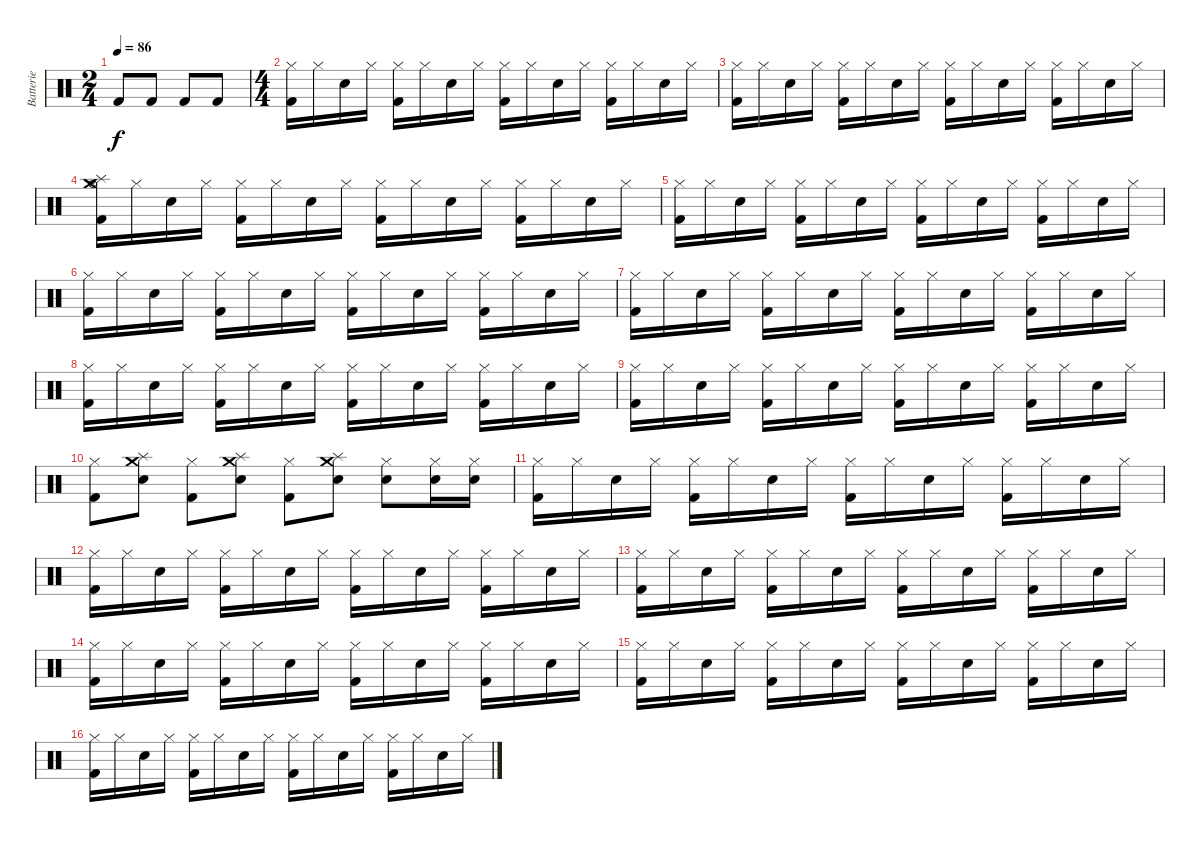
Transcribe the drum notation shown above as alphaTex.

\track ("Batterie" "Batterie") {instrument percussion}
\staff {score}
\articulation defaults
\ts (2 4)
\tempo 86
\clef neutral
\ks c "Kick (hit) 2".8{dy f} "Kick (hit) 2".8 "Kick (hit) 2".8 "Kick (hit) 2".8
|
\ts (4 4)
("Hi-Hat (closed)" "Kick (hit) 2").16 "Hi-Hat (closed)".16 "Snare (hit) 2".16 "Hi-Hat (closed)".16 ("Hi-Hat (closed)" "Kick (hit) 2").16 "Hi-Hat (closed)".16 "Snare (hit) 2".16 "Hi-Hat (closed)".16 ("Hi-Hat (closed)" "Kick (hit) 2").16 "Hi-Hat (closed)".16 "Snare (hit) 2".16 "Hi-Hat (closed)".16 ("Hi-Hat (closed)" "Kick (hit) 2").16 "Hi-Hat (closed)".16 "Snare (hit) 2".16 "Hi-Hat (closed)".16 |
("Hi-Hat (closed)" "Kick (hit) 2").16 "Hi-Hat (closed)".16 "Snare (hit) 2".16 "Hi-Hat (closed)".16 ("Hi-Hat (closed)" "Kick (hit) 2").16 "Hi-Hat (closed)".16 "Snare (hit) 2".16 "Hi-Hat (closed)".16 ("Hi-Hat (closed)" "Kick (hit) 2").16 "Hi-Hat (closed)".16 "Snare (hit) 2".16 "Hi-Hat (closed)".16 ("Hi-Hat (closed)" "Kick (hit) 2").16 "Hi-Hat (closed)".16 "Snare (hit) 2".16 "Hi-Hat (closed)".16 |
("Crash medium (hit)" "Hi-Hat (open)" "Splash (hit)" "Kick (hit) 2").16 "Hi-Hat (closed)".16 "Snare (hit) 2".16 "Hi-Hat (closed)".16 ("Hi-Hat (closed)" "Kick (hit) 2").16 "Hi-Hat (closed)".16 "Snare (hit) 2".16 "Hi-Hat (closed)".16 ("Hi-Hat (closed)" "Kick (hit) 2").16 "Hi-Hat (closed)".16 "Snare (hit) 2".16 "Hi-Hat (closed)".16 ("Hi-Hat (closed)" "Kick (hit) 2").16 "Hi-Hat (closed)".16 "Snare (hit) 2".16 "Hi-Hat (closed)".16 |
("Hi-Hat (closed)" "Kick (hit) 2").16 "Hi-Hat (closed)".16 "Snare (hit) 2".16 "Hi-Hat (closed)".16 ("Hi-Hat (closed)" "Kick (hit) 2").16 "Hi-Hat (closed)".16 "Snare (hit) 2".16 "Hi-Hat (closed)".16 ("Hi-Hat (closed)" "Kick (hit) 2").16 "Hi-Hat (closed)".16 "Snare (hit) 2".16 "Hi-Hat (closed)".16 ("Hi-Hat (closed)" "Kick (hit) 2").16 "Hi-Hat (closed)".16 "Snare (hit) 2".16 "Hi-Hat (closed)".16 |
("Hi-Hat (closed)" "Kick (hit) 2").16 "Hi-Hat (closed)".16 "Snare (hit) 2".16 "Hi-Hat (closed)".16 ("Hi-Hat (closed)" "Kick (hit) 2").16 "Hi-Hat (closed)".16 "Snare (hit) 2".16 "Hi-Hat (closed)".16 ("Hi-Hat (closed)" "Kick (hit) 2").16 "Hi-Hat (closed)".16 "Snare (hit) 2".16 "Hi-Hat (closed)".16 ("Hi-Hat (closed)" "Kick (hit) 2").16 "Hi-Hat (closed)".16 "Snare (hit) 2".16 "Hi-Hat (closed)".16 |
("Hi-Hat (closed)" "Kick (hit) 2").16 "Hi-Hat (closed)".16 "Snare (hit) 2".16 "Hi-Hat (closed)".16 ("Hi-Hat (closed)" "Kick (hit) 2").16 "Hi-Hat (closed)".16 "Snare (hit) 2".16 "Hi-Hat (closed)".16 ("Hi-Hat (closed)" "Kick (hit) 2").16 "Hi-Hat (closed)".16 "Snare (hit) 2".16 "Hi-Hat (closed)".16 ("Hi-Hat (closed)" "Kick (hit) 2").16 "Hi-Hat (closed)".16 "Snare (hit) 2".16 "Hi-Hat (closed)".16 |
("Hi-Hat (closed)" "Kick (hit) 2").16 "Hi-Hat (closed)".16 "Snare (hit) 2".16 "Hi-Hat (closed)".16 ("Hi-Hat (closed)" "Kick (hit) 2").16 "Hi-Hat (closed)".16 "Snare (hit) 2".16 "Hi-Hat (closed)".16 ("Hi-Hat (closed)" "Kick (hit) 2").16 "Hi-Hat (closed)".16 "Snare (hit) 2".16 "Hi-Hat (closed)".16 ("Hi-Hat (closed)" "Kick (hit) 2").16 "Hi-Hat (closed)".16 "Snare (hit) 2".16 "Hi-Hat (closed)".16 |
("Hi-Hat (closed)" "Kick (hit) 2").16 "Hi-Hat (closed)".16 "Snare (hit) 2".16 "Hi-Hat (closed)".16 ("Hi-Hat (closed)" "Kick (hit) 2").16 "Hi-Hat (closed)".16 "Snare (hit) 2".16 "Hi-Hat (closed)".16 ("Hi-Hat (closed)" "Kick (hit) 2").16 "Hi-Hat (closed)".16 "Snare (hit) 2".16 "Hi-Hat (closed)".16 ("Hi-Hat (closed)" "Kick (hit) 2").16 "Hi-Hat (closed)".16 "Snare (hit) 2".16 "Hi-Hat (closed)".16 |
("Hi-Hat (closed)" "Kick (hit) 2").8 ("Snare (hit) 2" "Splash (hit)" "Crash medium (hit)").8 ("Hi-Hat (closed)" "Kick (hit) 2").8 ("Snare (hit) 2" "Splash (hit)" "Crash medium (hit)").8 ("Hi-Hat (closed)" "Kick (hit) 2").8 ("Snare (hit) 2" "Splash (hit)" "Crash medium (hit)").8 ("Hi-Hat (closed)" "Snare (hit) 2").8 ("Hi-Hat (closed)" "Snare (hit) 2").16 ("Hi-Hat (closed)" "Snare (hit) 2").16 |
("Hi-Hat (closed)" "Kick (hit) 2").16 "Hi-Hat (closed)".16 "Snare (hit) 2".16 "Hi-Hat (closed)".16 ("Hi-Hat (closed)" "Kick (hit) 2").16 "Hi-Hat (closed)".16 "Snare (hit) 2".16 "Hi-Hat (closed)".16 ("Hi-Hat (closed)" "Kick (hit) 2").16 "Hi-Hat (closed)".16 "Snare (hit) 2".16 "Hi-Hat (closed)".16 ("Hi-Hat (closed)" "Kick (hit) 2").16 "Hi-Hat (closed)".16 "Snare (hit) 2".16 "Hi-Hat (closed)".16 |
("Hi-Hat (closed)" "Kick (hit) 2").16 "Hi-Hat (closed)".16 "Snare (hit) 2".16 "Hi-Hat (closed)".16 ("Hi-Hat (closed)" "Kick (hit) 2").16 "Hi-Hat (closed)".16 "Snare (hit) 2".16 "Hi-Hat (closed)".16 ("Hi-Hat (closed)" "Kick (hit) 2").16 "Hi-Hat (closed)".16 "Snare (hit) 2".16 "Hi-Hat (closed)".16 ("Hi-Hat (closed)" "Kick (hit) 2").16 "Hi-Hat (closed)".16 "Snare (hit) 2".16 "Hi-Hat (closed)".16 |
("Hi-Hat (closed)" "Kick (hit) 2").16 "Hi-Hat (closed)".16 "Snare (hit) 2".16 "Hi-Hat (closed)".16 ("Hi-Hat (closed)" "Kick (hit) 2").16 "Hi-Hat (closed)".16 "Snare (hit) 2".16 "Hi-Hat (closed)".16 ("Hi-Hat (closed)" "Kick (hit) 2").16 "Hi-Hat (closed)".16 "Snare (hit) 2".16 "Hi-Hat (closed)".16 ("Hi-Hat (closed)" "Kick (hit) 2").16 "Hi-Hat (closed)".16 "Snare (hit) 2".16 "Hi-Hat (closed)".16 |
("Hi-Hat (closed)" "Kick (hit) 2").16 "Hi-Hat (closed)".16 "Snare (hit) 2".16 "Hi-Hat (closed)".16 ("Hi-Hat (closed)" "Kick (hit) 2").16 "Hi-Hat (closed)".16 "Snare (hit) 2".16 "Hi-Hat (closed)".16 ("Hi-Hat (closed)" "Kick (hit) 2").16 "Hi-Hat (closed)".16 "Snare (hit) 2".16 "Hi-Hat (closed)".16 ("Hi-Hat (closed)" "Kick (hit) 2").16 "Hi-Hat (closed)".16 "Snare (hit) 2".16 "Hi-Hat (closed)".16 |
("Hi-Hat (closed)" "Kick (hit) 2").16 "Hi-Hat (closed)".16 "Snare (hit) 2".16 "Hi-Hat (closed)".16 ("Hi-Hat (closed)" "Kick (hit) 2").16 "Hi-Hat (closed)".16 "Snare (hit) 2".16 "Hi-Hat (closed)".16 ("Hi-Hat (closed)" "Kick (hit) 2").16 "Hi-Hat (closed)".16 "Snare (hit) 2".16 "Hi-Hat (closed)".16 ("Hi-Hat (closed)" "Kick (hit) 2").16 "Hi-Hat (closed)".16 "Snare (hit) 2".16 "Hi-Hat (closed)".16 |
("Hi-Hat (closed)" "Kick (hit) 2").16 "Hi-Hat (closed)".16 "Snare (hit) 2".16 "Hi-Hat (closed)".16 ("Hi-Hat (closed)" "Kick (hit) 2").16 "Hi-Hat (closed)".16 "Snare (hit) 2".16 "Hi-Hat (closed)".16 ("Hi-Hat (closed)" "Kick (hit) 2").16 "Hi-Hat (closed)".16 "Snare (hit) 2".16 "Hi-Hat (closed)".16 ("Hi-Hat (closed)" "Kick (hit) 2").16 "Hi-Hat (closed)".16 "Snare (hit) 2".16 "Hi-Hat (closed)".16
